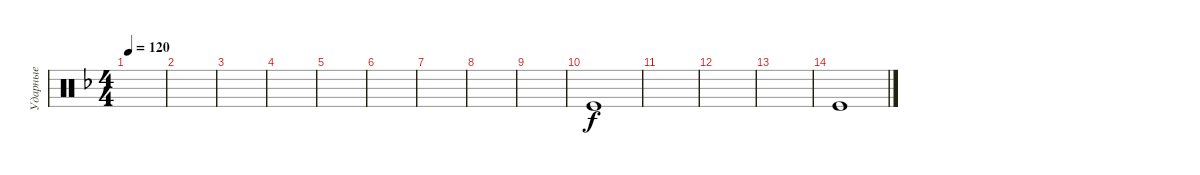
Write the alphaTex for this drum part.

\track ("Ударные" "Ударные") {instrument percussion}
\staff {score}
\articulation defaults
\ts (4 4)
\tempo 120
\clef neutral
\ks dminor
|
|
|
|
|
|
|
|
|
"Kick (hit)".1 |
|
|
|
"Kick (hit)".1
